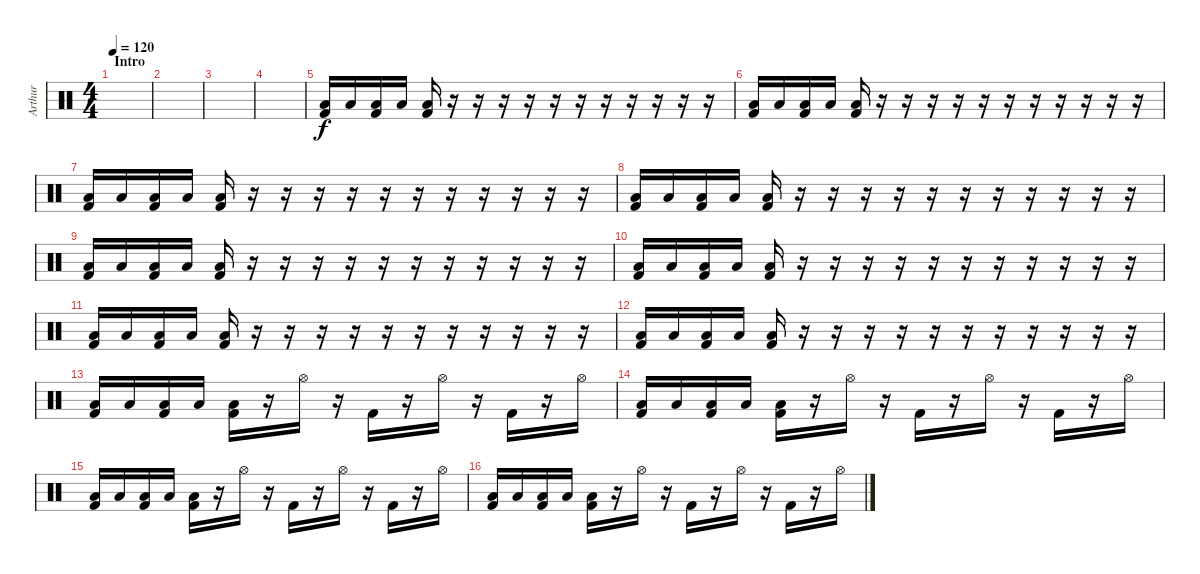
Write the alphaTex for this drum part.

\track ("Arthur" "Arthur") {instrument percussion}
\staff {score}
\articulation defaults
\ts (4 4)
\section ("" "Intro")
\tempo 120
\clef neutral
\ks c
|
|
|
|
("Low Floor Tom (hit)" "Kick (hit) 2").16 "Low Floor Tom (hit)".16 ("Low Floor Tom (hit)" "Kick (hit) 2").16 "Low Floor Tom (hit)".16 ("Low Floor Tom (hit)" "Kick (hit) 2").16 r.16 r.16 r.16 r.16 r.16 r.16 r.16 r.16 r.16 r.16 r.16 |
("Low Floor Tom (hit)" "Kick (hit) 2").16 "Low Floor Tom (hit)".16 ("Low Floor Tom (hit)" "Kick (hit) 2").16 "Low Floor Tom (hit)".16 ("Low Floor Tom (hit)" "Kick (hit) 2").16 r.16 r.16 r.16 r.16 r.16 r.16 r.16 r.16 r.16 r.16 r.16 |
("Low Floor Tom (hit)" "Kick (hit) 2").16 "Low Floor Tom (hit)".16 ("Low Floor Tom (hit)" "Kick (hit) 2").16 "Low Floor Tom (hit)".16 ("Low Floor Tom (hit)" "Kick (hit) 2").16 r.16 r.16 r.16 r.16 r.16 r.16 r.16 r.16 r.16 r.16 r.16 |
("Low Floor Tom (hit)" "Kick (hit) 2").16 "Low Floor Tom (hit)".16 ("Low Floor Tom (hit)" "Kick (hit) 2").16 "Low Floor Tom (hit)".16 ("Low Floor Tom (hit)" "Kick (hit) 2").16 r.16 r.16 r.16 r.16 r.16 r.16 r.16 r.16 r.16 r.16 r.16 |
("Low Floor Tom (hit)" "Kick (hit) 2").16 "Low Floor Tom (hit)".16 ("Low Floor Tom (hit)" "Kick (hit) 2").16 "Low Floor Tom (hit)".16 ("Low Floor Tom (hit)" "Kick (hit) 2").16 r.16 r.16 r.16 r.16 r.16 r.16 r.16 r.16 r.16 r.16 r.16 |
("Low Floor Tom (hit)" "Kick (hit) 2").16 "Low Floor Tom (hit)".16 ("Low Floor Tom (hit)" "Kick (hit) 2").16 "Low Floor Tom (hit)".16 ("Low Floor Tom (hit)" "Kick (hit) 2").16 r.16 r.16 r.16 r.16 r.16 r.16 r.16 r.16 r.16 r.16 r.16 |
("Low Floor Tom (hit)" "Kick (hit) 2").16 "Low Floor Tom (hit)".16 ("Low Floor Tom (hit)" "Kick (hit) 2").16 "Low Floor Tom (hit)".16 ("Low Floor Tom (hit)" "Kick (hit) 2").16 r.16 r.16 r.16 r.16 r.16 r.16 r.16 r.16 r.16 r.16 r.16 |
("Low Floor Tom (hit)" "Kick (hit) 2").16 "Low Floor Tom (hit)".16 ("Low Floor Tom (hit)" "Kick (hit) 2").16 "Low Floor Tom (hit)".16 ("Low Floor Tom (hit)" "Kick (hit) 2").16 r.16 r.16 r.16 r.16 r.16 r.16 r.16 r.16 r.16 r.16 r.16 |
("Low Floor Tom (hit)" "Kick (hit) 2").16 "Low Floor Tom (hit)".16 ("Low Floor Tom (hit)" "Kick (hit) 2").16 "Low Floor Tom (hit)".16 ("Low Floor Tom (hit)" "Kick (hit) 2").16 r.16 "Hi-Hat (open)".16 r.16 "Kick (hit) 2".16 r.16 "Hi-Hat (open)".16 r.16 "Kick (hit) 2".16 r.16 "Hi-Hat (open)".16 |
("Low Floor Tom (hit)" "Kick (hit) 2").16 "Low Floor Tom (hit)".16 ("Low Floor Tom (hit)" "Kick (hit) 2").16 "Low Floor Tom (hit)".16 ("Low Floor Tom (hit)" "Kick (hit) 2").16 r.16 "Hi-Hat (open)".16 r.16 "Kick (hit) 2".16 r.16 "Hi-Hat (open)".16 r.16 "Kick (hit) 2".16 r.16 "Hi-Hat (open)".16 |
("Low Floor Tom (hit)" "Kick (hit) 2").16 "Low Floor Tom (hit)".16 ("Low Floor Tom (hit)" "Kick (hit) 2").16 "Low Floor Tom (hit)".16 ("Low Floor Tom (hit)" "Kick (hit) 2").16 r.16 "Hi-Hat (open)".16 r.16 "Kick (hit) 2".16 r.16 "Hi-Hat (open)".16 r.16 "Kick (hit) 2".16 r.16 "Hi-Hat (open)".16 |
("Low Floor Tom (hit)" "Kick (hit) 2").16 "Low Floor Tom (hit)".16 ("Low Floor Tom (hit)" "Kick (hit) 2").16 "Low Floor Tom (hit)".16 ("Low Floor Tom (hit)" "Kick (hit) 2").16 r.16 "Hi-Hat (open)".16 r.16 "Kick (hit) 2".16 r.16 "Hi-Hat (open)".16 r.16 "Kick (hit) 2".16 r.16 "Hi-Hat (open)".16
